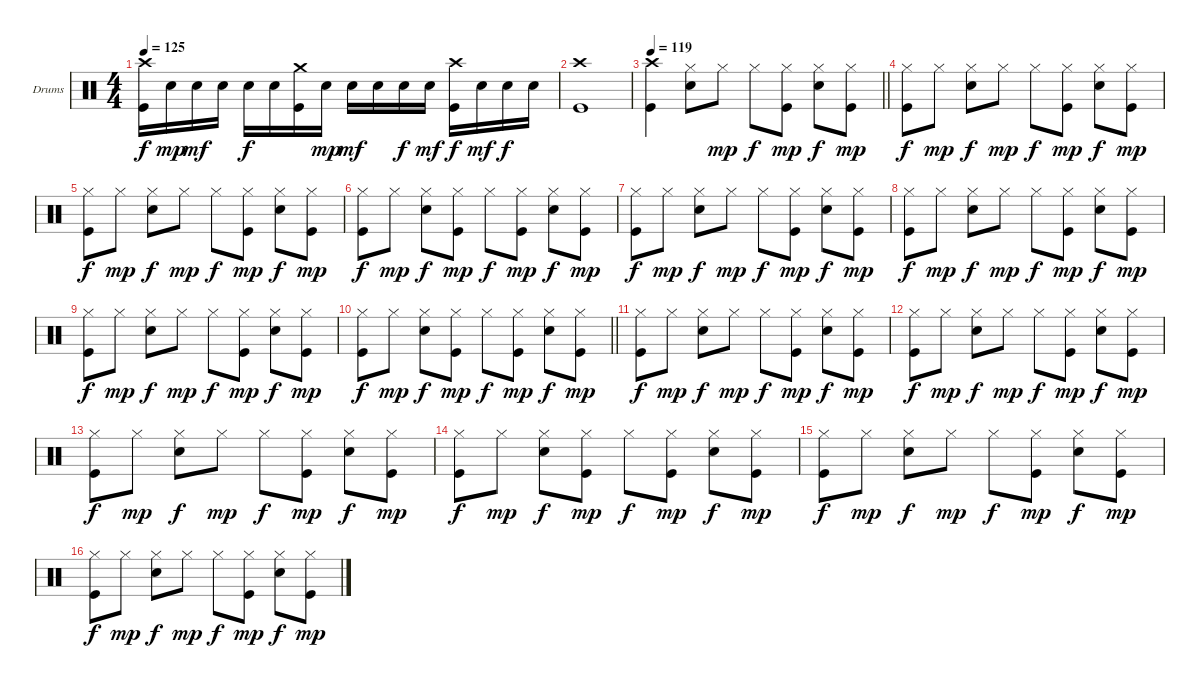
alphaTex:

\bracketExtendMode groupsimilarinstruments
\firstSystemTrackNameOrientation horizontal
\otherSystemsTrackNameOrientation horizontal
\track ("Drumkit" "Drums") {instrument percussion}
\staff {score}
\articulation defaults
\ts (4 4)
\tempo 125
\clef neutral
\ks c
("Crash high (hit)" "Kick (hit)").16{dy f} "Snare (hit) 2".16{dy mp} "Snare (hit) 2".16{dy mf} "Snare (hit) 2".16 "Snare (hit) 2".16{dy f} "Snare (hit) 2".16 ("Crash medium (hit)" "Kick (hit)").16 "Snare (hit) 2".16{dy mp} "Snare (hit) 2".16{dy mf} "Snare (hit) 2".16 "Snare (hit) 2".16{dy f} "Snare (hit) 2".16{dy mf} ("Crash high (hit)" "Kick (hit)").16{dy f} "Snare (hit) 2".16{dy mf} "Snare (hit) 2".16{dy f} "Snare (hit) 2".16 |
("Crash high (hit)" "Kick (hit)").1 |
\tempo 119
\barLineRight lightlight
("Crash high (hit)" "Kick (hit)").4 ("Hi-Hat (closed)" "Snare (hit) 2").8 "Hi-Hat (closed)".8{dy mp} "Hi-Hat (closed)".8{dy f} ("Hi-Hat (closed)" "Kick (hit)").8{dy mp} ("Hi-Hat (closed)" "Snare (hit) 2").8{dy f} ("Hi-Hat (closed)" "Kick (hit)").8{dy mp} |
("Hi-Hat (closed)" "Kick (hit)").8{dy f} "Hi-Hat (closed)".8{dy mp} ("Hi-Hat (closed)" "Snare (hit) 2").8{dy f} "Hi-Hat (closed)".8{dy mp} "Hi-Hat (closed)".8{dy f} ("Hi-Hat (closed)" "Kick (hit)").8{dy mp} ("Hi-Hat (closed)" "Snare (hit) 2").8{dy f} ("Hi-Hat (closed)" "Kick (hit)").8{dy mp} |
("Hi-Hat (closed)" "Kick (hit)").8{dy f} "Hi-Hat (closed)".8{dy mp} ("Hi-Hat (closed)" "Snare (hit) 2").8{dy f} "Hi-Hat (closed)".8{dy mp} "Hi-Hat (closed)".8{dy f} ("Hi-Hat (closed)" "Kick (hit)").8{dy mp} ("Hi-Hat (closed)" "Snare (hit) 2").8{dy f} ("Hi-Hat (closed)" "Kick (hit)").8{dy mp} |
("Hi-Hat (closed)" "Kick (hit)").8{dy f} "Hi-Hat (closed)".8{dy mp} ("Hi-Hat (closed)" "Snare (hit) 2").8{dy f} ("Hi-Hat (closed)" "Kick (hit)").8{dy mp} "Hi-Hat (closed)".8{dy f} ("Hi-Hat (closed)" "Kick (hit)").8{dy mp} ("Hi-Hat (closed)" "Snare (hit) 2").8{dy f} ("Hi-Hat (closed)" "Kick (hit)").8{dy mp} |
("Hi-Hat (closed)" "Kick (hit)").8{dy f} "Hi-Hat (closed)".8{dy mp} ("Hi-Hat (closed)" "Snare (hit) 2").8{dy f} "Hi-Hat (closed)".8{dy mp} "Hi-Hat (closed)".8{dy f} ("Hi-Hat (closed)" "Kick (hit)").8{dy mp} ("Hi-Hat (closed)" "Snare (hit) 2").8{dy f} ("Hi-Hat (closed)" "Kick (hit)").8{dy mp} |
("Hi-Hat (closed)" "Kick (hit)").8{dy f} "Hi-Hat (closed)".8{dy mp} ("Hi-Hat (closed)" "Snare (hit) 2").8{dy f} "Hi-Hat (closed)".8{dy mp} "Hi-Hat (closed)".8{dy f} ("Hi-Hat (closed)" "Kick (hit)").8{dy mp} ("Hi-Hat (closed)" "Snare (hit) 2").8{dy f} ("Hi-Hat (closed)" "Kick (hit)").8{dy mp} |
("Hi-Hat (closed)" "Kick (hit)").8{dy f} "Hi-Hat (closed)".8{dy mp} ("Hi-Hat (closed)" "Snare (hit) 2").8{dy f} "Hi-Hat (closed)".8{dy mp} "Hi-Hat (closed)".8{dy f} ("Hi-Hat (closed)" "Kick (hit)").8{dy mp} ("Hi-Hat (closed)" "Snare (hit) 2").8{dy f} ("Hi-Hat (closed)" "Kick (hit)").8{dy mp} |
\barLineRight lightlight
("Hi-Hat (closed)" "Kick (hit)").8{dy f} "Hi-Hat (closed)".8{dy mp} ("Hi-Hat (closed)" "Snare (hit) 2").8{dy f} ("Hi-Hat (closed)" "Kick (hit)").8{dy mp} "Hi-Hat (closed)".8{dy f} ("Hi-Hat (closed)" "Kick (hit)").8{dy mp} ("Hi-Hat (closed)" "Snare (hit) 2").8{dy f} ("Hi-Hat (closed)" "Kick (hit)").8{dy mp} |
("Hi-Hat (closed)" "Kick (hit)").8{dy f} "Hi-Hat (closed)".8{dy mp} ("Hi-Hat (closed)" "Snare (hit) 2").8{dy f} "Hi-Hat (closed)".8{dy mp} "Hi-Hat (closed)".8{dy f} ("Hi-Hat (closed)" "Kick (hit)").8{dy mp} ("Hi-Hat (closed)" "Snare (hit) 2").8{dy f} ("Hi-Hat (closed)" "Kick (hit)").8{dy mp} |
("Hi-Hat (closed)" "Kick (hit)").8{dy f} "Hi-Hat (closed)".8{dy mp} ("Hi-Hat (closed)" "Snare (hit) 2").8{dy f} "Hi-Hat (closed)".8{dy mp} "Hi-Hat (closed)".8{dy f} ("Hi-Hat (closed)" "Kick (hit)").8{dy mp} ("Hi-Hat (closed)" "Snare (hit) 2").8{dy f} ("Hi-Hat (closed)" "Kick (hit)").8{dy mp} |
("Hi-Hat (closed)" "Kick (hit)").8{dy f} "Hi-Hat (closed)".8{dy mp} ("Hi-Hat (closed)" "Snare (hit) 2").8{dy f} "Hi-Hat (closed)".8{dy mp} "Hi-Hat (closed)".8{dy f} ("Hi-Hat (closed)" "Kick (hit)").8{dy mp} ("Hi-Hat (closed)" "Snare (hit) 2").8{dy f} ("Hi-Hat (closed)" "Kick (hit)").8{dy mp} |
("Hi-Hat (closed)" "Kick (hit)").8{dy f} "Hi-Hat (closed)".8{dy mp} ("Hi-Hat (closed)" "Snare (hit) 2").8{dy f} ("Hi-Hat (closed)" "Kick (hit)").8{dy mp} "Hi-Hat (closed)".8{dy f} ("Hi-Hat (closed)" "Kick (hit)").8{dy mp} ("Hi-Hat (closed)" "Snare (hit) 2").8{dy f} ("Hi-Hat (closed)" "Kick (hit)").8{dy mp} |
("Hi-Hat (closed)" "Kick (hit)").8{dy f} "Hi-Hat (closed)".8{dy mp} ("Hi-Hat (closed)" "Snare (hit) 2").8{dy f} "Hi-Hat (closed)".8{dy mp} "Hi-Hat (closed)".8{dy f} ("Hi-Hat (closed)" "Kick (hit)").8{dy mp} ("Hi-Hat (closed)" "Snare (hit) 2").8{dy f} ("Hi-Hat (closed)" "Kick (hit)").8{dy mp} |
("Hi-Hat (closed)" "Kick (hit)").8{dy f} "Hi-Hat (closed)".8{dy mp} ("Hi-Hat (closed)" "Snare (hit) 2").8{dy f} "Hi-Hat (closed)".8{dy mp} "Hi-Hat (closed)".8{dy f} ("Hi-Hat (closed)" "Kick (hit)").8{dy mp} ("Hi-Hat (closed)" "Snare (hit) 2").8{dy f} ("Hi-Hat (closed)" "Kick (hit)").8{dy mp}
